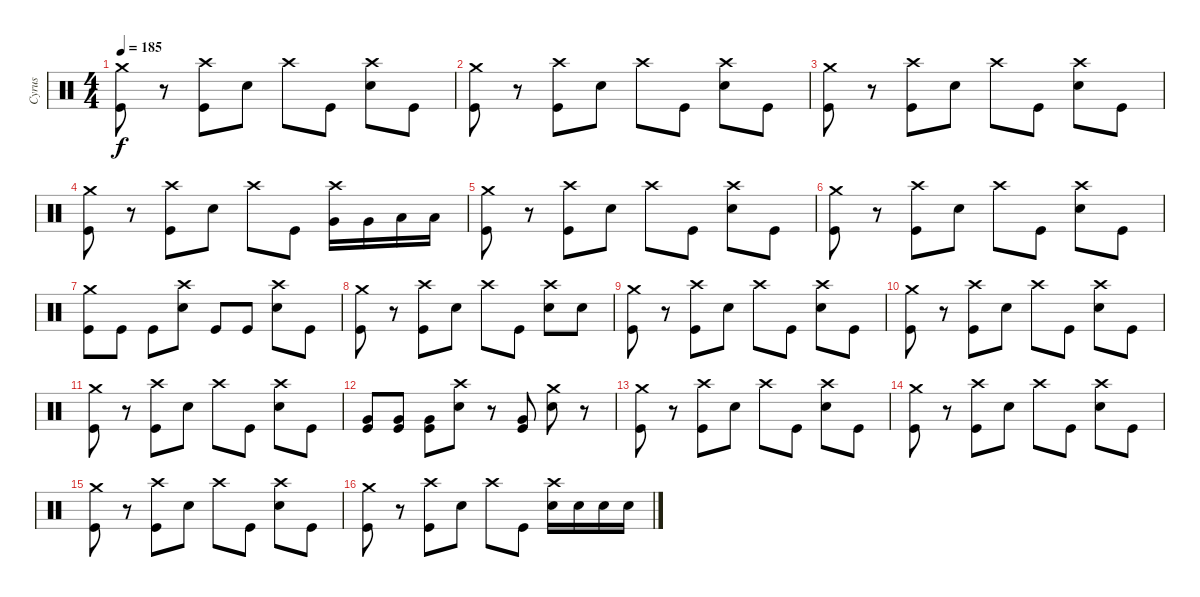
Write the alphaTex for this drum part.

\track ("Cyrus" "Cyrus") {instrument percussion}
\staff {score}
\articulation defaults
\ts (4 4)
\tempo 185
\clef neutral
\ks c
("Crash medium (hit)" "Kick (hit)").8{dy f} r.8 ("Crash high (hit)" "Kick (hit)").8 "Electric Snare (hit)".8 "Crash high (hit)".8 "Kick (hit)".8 ("Crash high (hit)" "Electric Snare (hit)").8 "Kick (hit)".8 |
("Crash medium (hit)" "Kick (hit)").8 r.8 ("Crash high (hit)" "Kick (hit)").8 "Electric Snare (hit)".8 "Crash high (hit)".8 "Kick (hit)".8 ("Crash high (hit)" "Electric Snare (hit)").8 "Kick (hit)".8 |
("Crash medium (hit)" "Kick (hit)").8 r.8 ("Crash high (hit)" "Kick (hit)").8 "Electric Snare (hit)".8 "Crash high (hit)".8 "Kick (hit)".8 ("Crash high (hit)" "Electric Snare (hit)").8 "Kick (hit)".8 |
("Crash medium (hit)" "Kick (hit)").8 r.8 ("Crash high (hit)" "Kick (hit)").8 "Electric Snare (hit)".8 "Crash high (hit)".8 "Kick (hit)".8 ("Crash high (hit)" "Very Low Tom (hit)").16 "Very Low Tom (hit)".16 "Low Floor Tom (hit)".16 "Low Floor Tom (hit)".16 |
("Crash medium (hit)" "Kick (hit)").8 r.8 ("Crash high (hit)" "Kick (hit)").8 "Electric Snare (hit)".8 "Crash high (hit)".8 "Kick (hit)".8 ("Crash high (hit)" "Electric Snare (hit)").8 "Kick (hit)".8 |
("Crash medium (hit)" "Kick (hit)").8 r.8 ("Crash high (hit)" "Kick (hit)").8 "Electric Snare (hit)".8 "Crash high (hit)".8 "Kick (hit)".8 ("Crash high (hit)" "Electric Snare (hit)").8 "Kick (hit)".8 |
("Crash medium (hit)" "Kick (hit)").8 "Kick (hit)".8 "Kick (hit)".8 ("Crash high (hit)" "Electric Snare (hit)").8 "Kick (hit)".8 "Kick (hit)".8 ("Crash high (hit)" "Electric Snare (hit)").8 "Kick (hit)".8 |
("Crash medium (hit)" "Kick (hit)").8 r.8 ("Crash high (hit)" "Kick (hit)").8 "Electric Snare (hit)".8 "Crash high (hit)".8 "Kick (hit)".8 ("Crash high (hit)" "Electric Snare (hit)").8 "Electric Snare (hit)".8 |
("Crash medium (hit)" "Kick (hit)").8 r.8 ("Crash high (hit)" "Kick (hit)").8 "Electric Snare (hit)".8 "Crash high (hit)".8 "Kick (hit)".8 ("Crash high (hit)" "Electric Snare (hit)").8 "Kick (hit)".8 |
("Crash medium (hit)" "Kick (hit)").8 r.8 ("Crash high (hit)" "Kick (hit)").8 "Electric Snare (hit)".8 "Crash high (hit)".8 "Kick (hit)".8 ("Crash high (hit)" "Electric Snare (hit)").8 "Kick (hit)".8 |
("Crash medium (hit)" "Kick (hit)").8 r.8 ("Crash high (hit)" "Kick (hit)").8 "Electric Snare (hit)".8 "Crash high (hit)".8 "Kick (hit)".8 ("Crash high (hit)" "Electric Snare (hit)").8 "Kick (hit)".8 |
("Very Low Tom (hit)" "Kick (hit)").8 ("Very Low Tom (hit)" "Kick (hit)").8 ("Very Low Tom (hit)" "Kick (hit)").8 ("Crash high (hit)" "Electric Snare (hit)").8 r.8 ("Very Low Tom (hit)" "Kick (hit)").8 ("Crash medium (hit)" "Electric Snare (hit)").8 r.8 |
("Crash medium (hit)" "Kick (hit)").8 r.8 ("Crash high (hit)" "Kick (hit)").8 "Electric Snare (hit)".8 "Crash high (hit)".8 "Kick (hit)".8 ("Crash high (hit)" "Electric Snare (hit)").8 "Kick (hit)".8 |
("Crash medium (hit)" "Kick (hit)").8 r.8 ("Crash high (hit)" "Kick (hit)").8 "Electric Snare (hit)".8 "Crash high (hit)".8 "Kick (hit)".8 ("Crash high (hit)" "Electric Snare (hit)").8 "Kick (hit)".8 |
("Crash medium (hit)" "Kick (hit)").8 r.8 ("Crash high (hit)" "Kick (hit)").8 "Electric Snare (hit)".8 "Crash high (hit)".8 "Kick (hit)".8 ("Crash high (hit)" "Electric Snare (hit)").8 "Kick (hit)".8 |
("Crash medium (hit)" "Kick (hit)").8 r.8 ("Crash high (hit)" "Kick (hit)").8 "Electric Snare (hit)".8 "Crash high (hit)".8 "Kick (hit)".8 ("Crash high (hit)" "Electric Snare (hit)").16 "Electric Snare (hit)".16 "Electric Snare (hit)".16 "Electric Snare (hit)".16
